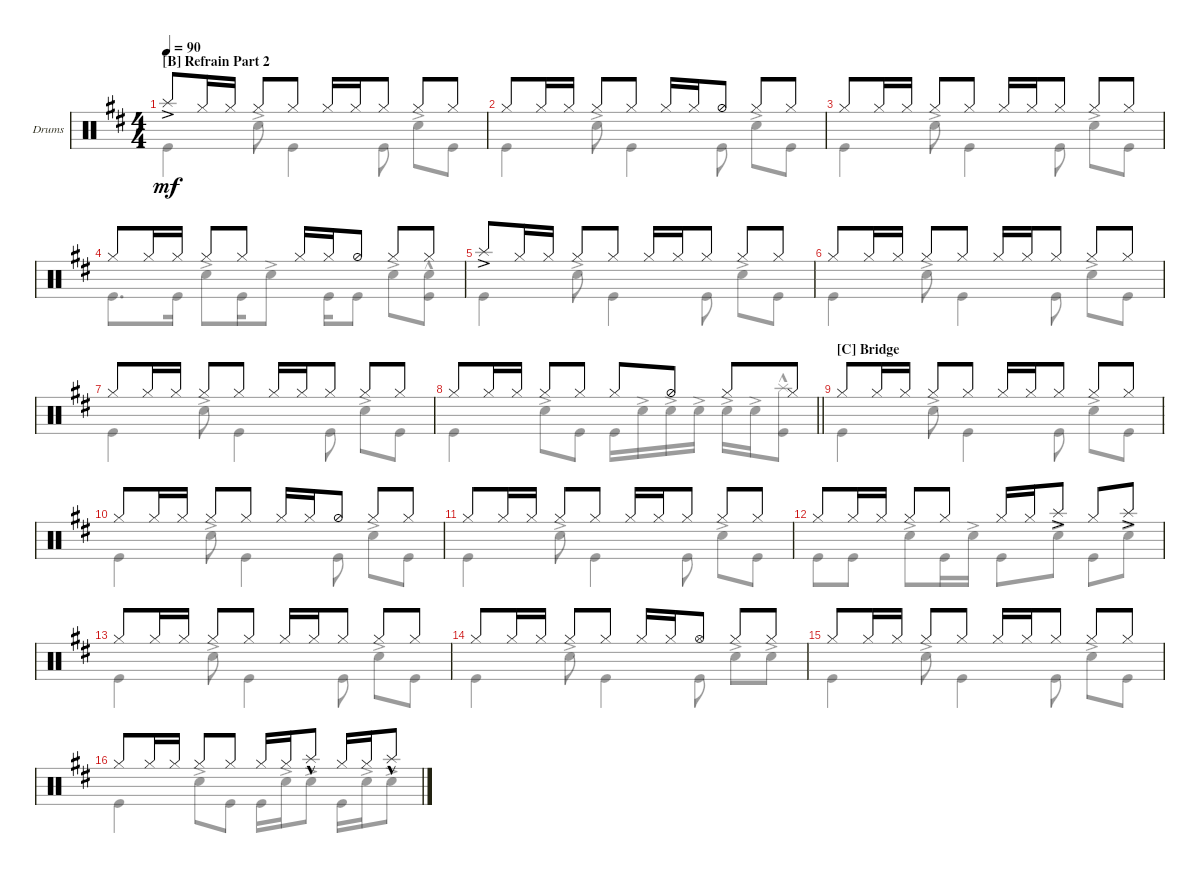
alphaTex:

\defaultSystemsLayout 4
\bracketExtendMode groupsimilarinstruments
\firstSystemTrackNameOrientation horizontal
\otherSystemsTrackNameOrientation horizontal
\track ("Drumkit" "Drums") {instrument percussion}
\staff {score}
\articulation defaults
\voice
\ts (4 4)
\section ("B" "Refrain Part 2")
\tempo 90
\clef neutral
\scale
0.5
\ks d "Splash (hit)"{ac}.8{dy mf} "Hi-Hat (closed)".16 "Hi-Hat (closed)".16 "Hi-Hat (closed)".8 "Hi-Hat (closed)".8 "Hi-Hat (closed)".16 "Hi-Hat (closed)".16 "Hi-Hat (closed)".8 "Hi-Hat (closed)".8 "Hi-Hat (closed)".8
|
\scale
0.5 "Hi-Hat (closed)".8 "Hi-Hat (closed)".16 "Hi-Hat (closed)".16 "Hi-Hat (closed)".8 "Hi-Hat (closed)".8 "Hi-Hat (closed)".16 "Hi-Hat (closed)".16 "Hi-Hat (half)".8 "Hi-Hat (closed)".8 "Hi-Hat (closed)".8 |
\scale
0.5 "Hi-Hat (closed)".8 "Hi-Hat (closed)".16 "Hi-Hat (closed)".16 "Hi-Hat (closed)".8 "Hi-Hat (closed)".8 "Hi-Hat (closed)".16 "Hi-Hat (closed)".16 "Hi-Hat (closed)".8 "Hi-Hat (closed)".8 "Hi-Hat (closed)".8 |
\scale
0.5 "Hi-Hat (closed)".8 "Hi-Hat (closed)".16 "Hi-Hat (closed)".16 "Hi-Hat (closed)".8 "Hi-Hat (closed)".8 "Hi-Hat (closed)".16 "Hi-Hat (closed)".16 "Hi-Hat (half)".8 "Hi-Hat (closed)".8 "Hi-Hat (closed)".8 |
\scale
0.5 "Splash (hit)"{ac}.8 "Hi-Hat (closed)".16 "Hi-Hat (closed)".16 "Hi-Hat (closed)".8 "Hi-Hat (closed)".8 "Hi-Hat (closed)".16 "Hi-Hat (closed)".16 "Hi-Hat (closed)".8 "Hi-Hat (closed)".8 "Hi-Hat (closed)".8 |
\scale
0.5 "Hi-Hat (closed)".8 "Hi-Hat (closed)".16 "Hi-Hat (closed)".16 "Hi-Hat (closed)".8 "Hi-Hat (closed)".8 "Hi-Hat (closed)".16 "Hi-Hat (closed)".16 "Hi-Hat (closed)".8 "Hi-Hat (closed)".8 "Hi-Hat (closed)".8 |
\scale
0.5 "Hi-Hat (closed)".8 "Hi-Hat (closed)".16 "Hi-Hat (closed)".16 "Hi-Hat (closed)".8 "Hi-Hat (closed)".8 "Hi-Hat (closed)".16 "Hi-Hat (closed)".16 "Hi-Hat (closed)".8 "Hi-Hat (closed)".8 "Hi-Hat (closed)".8 |
\scale
0.5
\barLineRight lightlight "Hi-Hat (closed)".8 "Hi-Hat (closed)".16 "Hi-Hat (closed)".16 "Hi-Hat (closed)".8 "Hi-Hat (closed)".8 "Hi-Hat (closed)".8 "Hi-Hat (half)".8 "Hi-Hat (closed)".8 "Hi-Hat (closed)".8
|
\section ("C" "Bridge")
\scale
0.5 "Hi-Hat (closed)".8 "Hi-Hat (closed)".16 "Hi-Hat (closed)".16 "Hi-Hat (closed)".8 "Hi-Hat (closed)".8 "Hi-Hat (closed)".16 "Hi-Hat (closed)".16 "Hi-Hat (closed)".8 "Hi-Hat (closed)".8 "Hi-Hat (closed)".8 |
\scale
0.5 "Hi-Hat (closed)".8 "Hi-Hat (closed)".16 "Hi-Hat (closed)".16 "Hi-Hat (closed)".8 "Hi-Hat (closed)".8 "Hi-Hat (closed)".16 "Hi-Hat (closed)".16 "Hi-Hat (half)".8 "Hi-Hat (closed)".8 "Hi-Hat (closed)".8 |
\scale
0.5 "Hi-Hat (closed)".8 "Hi-Hat (closed)".16 "Hi-Hat (closed)".16 "Hi-Hat (closed)".8 "Hi-Hat (closed)".8 "Hi-Hat (closed)".16 "Hi-Hat (closed)".16 "Hi-Hat (closed)".8 "Hi-Hat (closed)".8 "Hi-Hat (closed)".8 |
\scale
0.5 "Hi-Hat (closed)".8 "Hi-Hat (closed)".16 "Hi-Hat (closed)".16 "Hi-Hat (closed)".8 "Hi-Hat (closed)".8 "Hi-Hat (closed)".16 "Hi-Hat (closed)".16 "Splash (hit)"{ac}.8 "Hi-Hat (closed)".8 "Splash (hit)"{ac}.8 |
\scale
0.5 "Hi-Hat (closed)".8 "Hi-Hat (closed)".16 "Hi-Hat (closed)".16 "Hi-Hat (closed)".8 "Hi-Hat (closed)".8 "Hi-Hat (closed)".16 "Hi-Hat (closed)".16 "Hi-Hat (closed)".8 "Hi-Hat (closed)".8 "Hi-Hat (closed)".8 |
\scale
0.5 "Hi-Hat (closed)".8 "Hi-Hat (closed)".16 "Hi-Hat (closed)".16 "Hi-Hat (closed)".8 "Hi-Hat (closed)".8 "Hi-Hat (closed)".16 "Hi-Hat (closed)".16 "Hi-Hat (open)".8 "Hi-Hat (closed)".8 "Hi-Hat (closed)".8 |
\scale
0.5 "Hi-Hat (closed)".8 "Hi-Hat (closed)".16 "Hi-Hat (closed)".16 "Hi-Hat (closed)".8 "Hi-Hat (closed)".8 "Hi-Hat (closed)".16 "Hi-Hat (closed)".16 "Hi-Hat (closed)".8 "Hi-Hat (closed)".8 "Hi-Hat (closed)".8 |
\scale
0.5 "Hi-Hat (closed)".8 "Hi-Hat (closed)".16 "Hi-Hat (closed)".16 "Hi-Hat (closed)".8 "Hi-Hat (closed)".8 "Hi-Hat (closed)".16 "Hi-Hat (closed)".16 "Splash (hit)"{hac}.8 "Hi-Hat (closed)".16 "Hi-Hat (closed)".16 "Splash (hit)"{hac}.8
\voice
\clef neutral
\ottava regular
\simile none
\scale
0.5
\ks d "Kick (hit)".4{dy mf} "Snare (hit) 2"{ac}.8 "Kick (hit)".4 "Kick (hit)".8 "Snare (hit) 2"{ac}.8 "Kick (hit)".8
|
\scale
0.5 "Kick (hit)".4 "Snare (hit) 2"{ac}.8 "Kick (hit)".4 "Kick (hit)".8 "Snare (hit) 2"{ac}.8 "Kick (hit)".8 |
\scale
0.5 "Kick (hit)".4 "Snare (hit) 2"{ac}.8 "Kick (hit)".4 "Kick (hit)".8 "Snare (hit) 2"{ac}.8 "Kick (hit)".8 |
\scale
0.5 "Kick (hit)".8{d} "Kick (hit)".16 "Snare (hit) 2"{ac}.8 "Kick (hit)".16 "Snare (hit) 2"{ac}.8 "Kick (hit)".16 "Kick (hit)".8 "Snare (hit) 2"{ac}.8 ("Kick (hit)" "Snare (hit) 2"{hac}).8 |
\scale
0.5 "Kick (hit)".4 "Snare (hit) 2"{ac}.8 "Kick (hit)".4 "Kick (hit)".8 "Snare (hit) 2"{ac}.8 "Kick (hit)".8 |
\scale
0.5 "Kick (hit)".4 "Snare (hit) 2"{ac}.8 "Kick (hit)".4 "Kick (hit)".8 "Snare (hit) 2"{ac}.8 "Kick (hit)".8 |
\scale
0.5 "Kick (hit)".4 "Snare (hit) 2"{ac}.8 "Kick (hit)".4 "Kick (hit)".8 "Snare (hit) 2"{ac}.8 "Kick (hit)".8 |
\scale
0.5
\barLineRight lightlight "Kick (hit)".4 "Snare (hit) 2"{ac}.8 "Kick (hit)".8 "Kick (hit)".16 "Snare (hit) 2"{ac}.16 "Snare (hit) 2"{ac}.16 "Snare (hit) 2"{ac}.16 "Snare (hit) 2"{ac}.16 "Snare (hit) 2"{ac}.16
("Splash (hit)"{hac} "Kick (hit)").8 |
\scale
0.5 "Kick (hit)".4 "Snare (hit) 2"{ac}.8 "Kick (hit)".4 "Kick (hit)".8 "Snare (hit) 2"{ac}.8 "Kick (hit)".8 |
\scale
0.5 "Kick (hit)".4 "Snare (hit) 2"{ac}.8 "Kick (hit)".4 "Kick (hit)".8 "Snare (hit) 2"{ac}.8 "Kick (hit)".8 |
\scale
0.5 "Kick (hit)".4 "Snare (hit) 2"{ac}.8 "Kick (hit)".4 "Kick (hit)".8 "Snare (hit) 2"{ac}.8 "Kick (hit)".8 |
\scale
0.5 "Kick (hit)".8 "Kick (hit)".8 "Snare (hit) 2"{ac}.8 "Kick (hit)".16 "Snare (hit) 2"{ac}.16 "Kick (hit)".8 "Snare (hit) 2"{ac}.8 "Kick (hit)".8 "Snare (hit) 2"{ac}.8 |
\scale
0.5 "Kick (hit)".4 "Snare (hit) 2"{ac}.8 "Kick (hit)".4 "Kick (hit)".8 "Snare (hit) 2"{ac}.8 "Kick (hit)".8 |
\scale
0.5 "Kick (hit)".4 "Snare (hit) 2"{ac}.8 "Kick (hit)".4 "Kick (hit)".8 "Snare (hit) 2"{ac}.8 "Snare (hit) 2"{ac}.8 |
\scale
0.5 "Kick (hit)".4 "Snare (hit) 2"{ac}.8 "Kick (hit)".4 "Kick (hit)".8 "Snare (hit) 2"{ac}.8 "Kick (hit)".8 |
\scale
0.5 "Kick (hit)".4 "Snare (hit) 2"{ac}.8 "Kick (hit)".8 "Kick (hit)".16 "Snare (hit) 2"{ac}.16 "Snare (hit) 2"{ac}.8 "Kick (hit)".16 "Snare (hit) 2"{ac}.16 "Snare (hit) 2"{ac}.8
